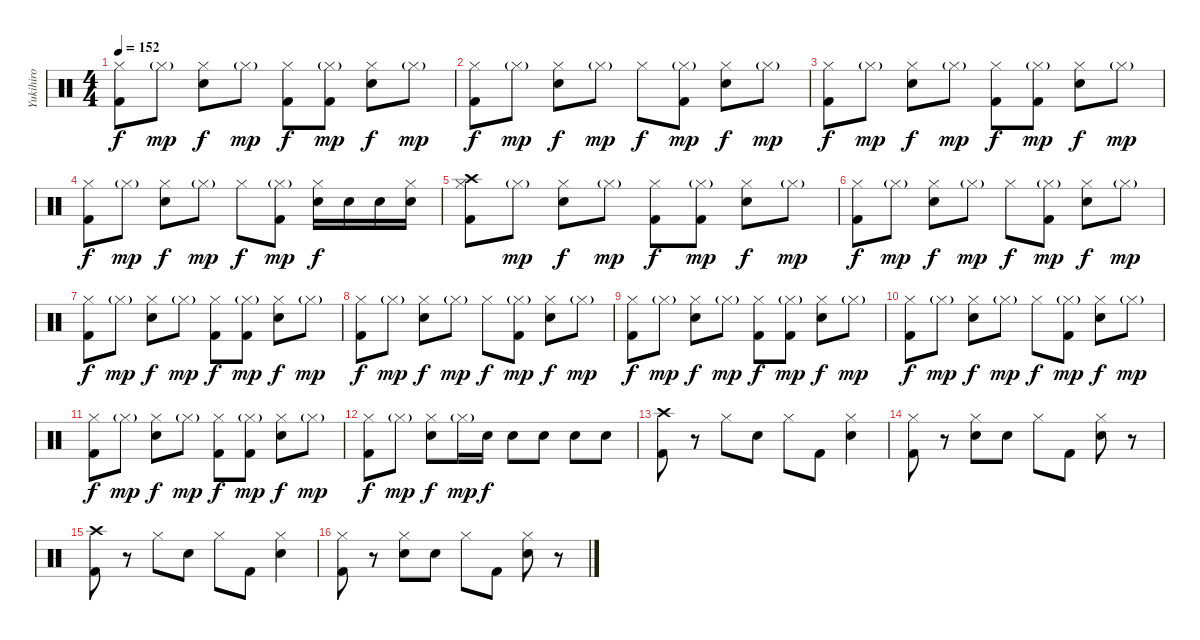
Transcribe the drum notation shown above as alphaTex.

\track ("Yukihiro" "Yukihiro") {instrument percussion}
\staff {score}
\articulation defaults
\ts (4 4)
\tempo 152
\clef neutral
\ks c
("Hi-Hat (closed)" "Kick (hit) 2").8{dy f} "Hi-Hat (closed)"{g}.8{dy mp} ("Hi-Hat (closed)" "Electric Snare (hit)").8{dy f} "Hi-Hat (closed)"{g}.8{dy mp} ("Hi-Hat (closed)" "Kick (hit) 2").8{dy f} ("Hi-Hat (closed)"{g} "Kick (hit) 2").8{dy mp} ("Hi-Hat (closed)" "Electric Snare (hit)").8{dy f} "Hi-Hat (closed)"{g}.8{dy mp} |
("Hi-Hat (closed)" "Kick (hit) 2").8{dy f} "Hi-Hat (closed)"{g}.8{dy mp} ("Hi-Hat (closed)" "Electric Snare (hit)").8{dy f} "Hi-Hat (closed)"{g}.8{dy mp} "Hi-Hat (closed)".8{dy f} ("Hi-Hat (closed)"{g} "Kick (hit) 2").8{dy mp} ("Hi-Hat (closed)" "Electric Snare (hit)").8{dy f} "Hi-Hat (closed)"{g}.8{dy mp} |
("Hi-Hat (closed)" "Kick (hit) 2").8{dy f} "Hi-Hat (closed)"{g}.8{dy mp} ("Hi-Hat (closed)" "Electric Snare (hit)").8{dy f} "Hi-Hat (closed)"{g}.8{dy mp} ("Hi-Hat (closed)" "Kick (hit) 2").8{dy f} ("Hi-Hat (closed)"{g} "Kick (hit) 2").8{dy mp} ("Hi-Hat (closed)" "Electric Snare (hit)").8{dy f} "Hi-Hat (closed)"{g}.8{dy mp} |
("Hi-Hat (closed)" "Kick (hit) 2").8{dy f} "Hi-Hat (closed)"{g}.8{dy mp} ("Hi-Hat (closed)" "Electric Snare (hit)").8{dy f} "Hi-Hat (closed)"{g}.8{dy mp} "Hi-Hat (closed)".8{dy f} ("Hi-Hat (closed)"{g} "Kick (hit) 2").8{dy mp} ("Hi-Hat (closed)" "Electric Snare (hit)").16{dy f} "Electric Snare (hit)".16 "Electric Snare (hit)".16 ("Hi-Hat (closed)" "Electric Snare (hit)").16 |
("Crash high (hit)" "Hi-Hat (closed)" "Kick (hit) 2").8 "Hi-Hat (closed)"{g}.8{dy mp} ("Hi-Hat (closed)" "Electric Snare (hit)").8{dy f} "Hi-Hat (closed)"{g}.8{dy mp} ("Hi-Hat (closed)" "Kick (hit) 2").8{dy f} ("Hi-Hat (closed)"{g} "Kick (hit) 2").8{dy mp} ("Hi-Hat (closed)" "Electric Snare (hit)").8{dy f} "Hi-Hat (closed)"{g}.8{dy mp} |
("Hi-Hat (closed)" "Kick (hit) 2").8{dy f} "Hi-Hat (closed)"{g}.8{dy mp} ("Hi-Hat (closed)" "Electric Snare (hit)").8{dy f} "Hi-Hat (closed)"{g}.8{dy mp} "Hi-Hat (closed)".8{dy f} ("Hi-Hat (closed)"{g} "Kick (hit) 2").8{dy mp} ("Hi-Hat (closed)" "Electric Snare (hit)").8{dy f} "Hi-Hat (closed)"{g}.8{dy mp} |
("Hi-Hat (closed)" "Kick (hit) 2").8{dy f} "Hi-Hat (closed)"{g}.8{dy mp} ("Hi-Hat (closed)" "Electric Snare (hit)").8{dy f} "Hi-Hat (closed)"{g}.8{dy mp} ("Hi-Hat (closed)" "Kick (hit) 2").8{dy f} ("Hi-Hat (closed)"{g} "Kick (hit) 2").8{dy mp} ("Hi-Hat (closed)" "Electric Snare (hit)").8{dy f} "Hi-Hat (closed)"{g}.8{dy mp} |
("Hi-Hat (closed)" "Kick (hit) 2").8{dy f} "Hi-Hat (closed)"{g}.8{dy mp} ("Hi-Hat (closed)" "Electric Snare (hit)").8{dy f} "Hi-Hat (closed)"{g}.8{dy mp} "Hi-Hat (closed)".8{dy f} ("Hi-Hat (closed)"{g} "Kick (hit) 2").8{dy mp} ("Hi-Hat (closed)" "Electric Snare (hit)").8{dy f} "Hi-Hat (closed)"{g}.8{dy mp} |
("Hi-Hat (closed)" "Kick (hit) 2").8{dy f} "Hi-Hat (closed)"{g}.8{dy mp} ("Hi-Hat (closed)" "Electric Snare (hit)").8{dy f} "Hi-Hat (closed)"{g}.8{dy mp} ("Hi-Hat (closed)" "Kick (hit) 2").8{dy f} ("Hi-Hat (closed)"{g} "Kick (hit) 2").8{dy mp} ("Hi-Hat (closed)" "Electric Snare (hit)").8{dy f} "Hi-Hat (closed)"{g}.8{dy mp} |
("Hi-Hat (closed)" "Kick (hit) 2").8{dy f} "Hi-Hat (closed)"{g}.8{dy mp} ("Hi-Hat (closed)" "Electric Snare (hit)").8{dy f} "Hi-Hat (closed)"{g}.8{dy mp} "Hi-Hat (closed)".8{dy f} ("Hi-Hat (closed)"{g} "Kick (hit) 2").8{dy mp} ("Hi-Hat (closed)" "Electric Snare (hit)").8{dy f} "Hi-Hat (closed)"{g}.8{dy mp} |
("Hi-Hat (closed)" "Kick (hit) 2").8{dy f} "Hi-Hat (closed)"{g}.8{dy mp} ("Hi-Hat (closed)" "Electric Snare (hit)").8{dy f} "Hi-Hat (closed)"{g}.8{dy mp} ("Hi-Hat (closed)" "Kick (hit) 2").8{dy f} ("Hi-Hat (closed)"{g} "Kick (hit) 2").8{dy mp} ("Hi-Hat (closed)" "Electric Snare (hit)").8{dy f} "Hi-Hat (closed)"{g}.8{dy mp} |
("Hi-Hat (closed)" "Kick (hit) 2").8{dy f} "Hi-Hat (closed)"{g}.8{dy mp} ("Hi-Hat (closed)" "Electric Snare (hit)").8{dy f} "Hi-Hat (closed)"{g}.16{dy mp} "Electric Snare (hit)".16{dy f} "Electric Snare (hit)".8 "Electric Snare (hit)".8 "Electric Snare (hit)".8 "Electric Snare (hit)".8 |
("Crash high (hit)" "Kick (hit) 2").8 r.8 "Hi-Hat (closed)".8 "Electric Snare (hit)".8 "Hi-Hat (closed)".8 "Kick (hit) 2".8 ("Hi-Hat (closed)" "Electric Snare (hit)").4 |
("Hi-Hat (closed)" "Kick (hit) 2").8 r.8 ("Hi-Hat (closed)" "Electric Snare (hit)").8 "Electric Snare (hit)".8 "Hi-Hat (closed)".8 "Kick (hit) 2".8 ("Hi-Hat (closed)" "Electric Snare (hit)").8 r.8 |
("Crash high (hit)" "Kick (hit) 2").8 r.8 "Hi-Hat (closed)".8 "Electric Snare (hit)".8 "Hi-Hat (closed)".8 "Kick (hit) 2".8 ("Hi-Hat (closed)" "Electric Snare (hit)").4 |
("Hi-Hat (closed)" "Kick (hit) 2").8 r.8 ("Hi-Hat (closed)" "Electric Snare (hit)").8 "Electric Snare (hit)".8 "Hi-Hat (closed)".8 "Kick (hit) 2".8 ("Hi-Hat (closed)" "Electric Snare (hit)").8 r.8
